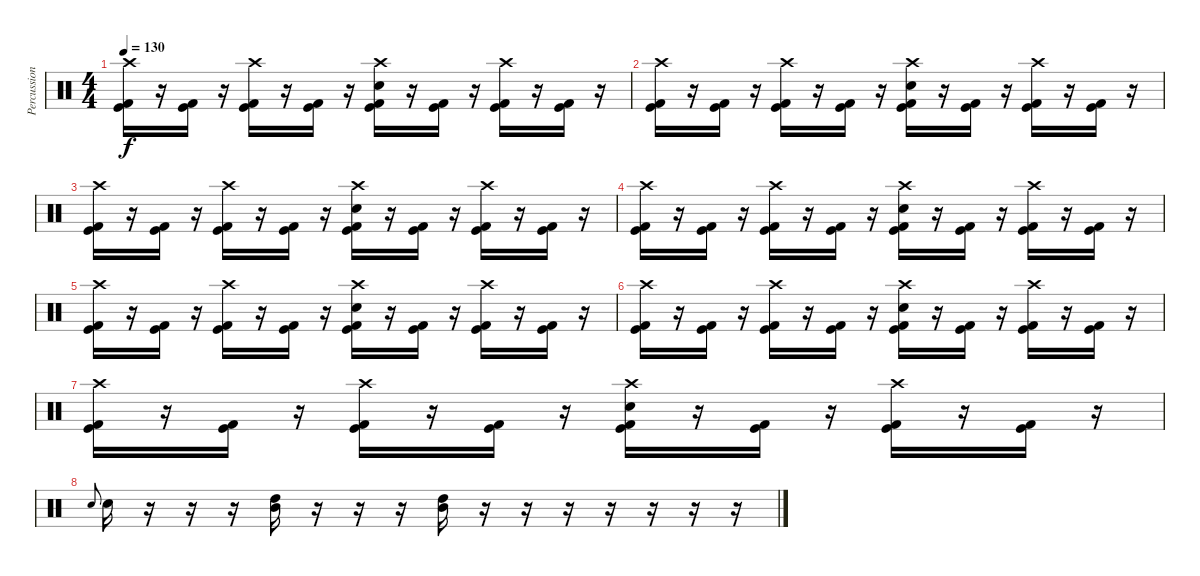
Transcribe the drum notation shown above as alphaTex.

\track ("Percussion" "Percussion") {instrument percussion}
\staff {score}
\articulation defaults
\ts (4 4)
\tempo 130
\clef neutral
\ks c
("Crash high (hit)" "Kick (hit)" "Kick (hit) 2").16{dy f} r.16 ("Kick (hit)" "Kick (hit) 2").16 r.16 ("Crash high (hit)" "Kick (hit)" "Kick (hit) 2").16 r.16 ("Kick (hit)" "Kick (hit) 2").16 r.16 ("Crash high (hit)" "Electric Snare (hit)" "Kick (hit)" "Kick (hit) 2").16 r.16 ("Kick (hit)" "Kick (hit) 2").16 r.16 ("Crash high (hit)" "Kick (hit)" "Kick (hit) 2").16 r.16 ("Kick (hit)" "Kick (hit) 2").16 r.16 |
("Crash high (hit)" "Kick (hit)" "Kick (hit) 2").16 r.16 ("Kick (hit)" "Kick (hit) 2").16 r.16 ("Crash high (hit)" "Kick (hit)" "Kick (hit) 2").16 r.16 ("Kick (hit)" "Kick (hit) 2").16 r.16 ("Crash high (hit)" "Electric Snare (hit)" "Kick (hit)" "Kick (hit) 2").16 r.16 ("Kick (hit)" "Kick (hit) 2").16 r.16 ("Crash high (hit)" "Kick (hit)" "Kick (hit) 2").16 r.16 ("Kick (hit)" "Kick (hit) 2").16 r.16 |
("Crash high (hit)" "Kick (hit)" "Kick (hit) 2").16 r.16 ("Kick (hit)" "Kick (hit) 2").16 r.16 ("Crash high (hit)" "Kick (hit)" "Kick (hit) 2").16 r.16 ("Kick (hit)" "Kick (hit) 2").16 r.16 ("Crash high (hit)" "Electric Snare (hit)" "Kick (hit)" "Kick (hit) 2").16 r.16 ("Kick (hit)" "Kick (hit) 2").16 r.16 ("Crash high (hit)" "Kick (hit)" "Kick (hit) 2").16 r.16 ("Kick (hit)" "Kick (hit) 2").16 r.16 |
("Crash high (hit)" "Kick (hit)" "Kick (hit) 2").16 r.16 ("Kick (hit)" "Kick (hit) 2").16 r.16 ("Crash high (hit)" "Kick (hit)" "Kick (hit) 2").16 r.16 ("Kick (hit)" "Kick (hit) 2").16 r.16 ("Crash high (hit)" "Electric Snare (hit)" "Kick (hit)" "Kick (hit) 2").16 r.16 ("Kick (hit)" "Kick (hit) 2").16 r.16 ("Crash high (hit)" "Kick (hit)" "Kick (hit) 2").16 r.16 ("Kick (hit)" "Kick (hit) 2").16 r.16 |
("Crash high (hit)" "Kick (hit)" "Kick (hit) 2").16 r.16 ("Kick (hit)" "Kick (hit) 2").16 r.16 ("Crash high (hit)" "Kick (hit)" "Kick (hit) 2").16 r.16 ("Kick (hit)" "Kick (hit) 2").16 r.16 ("Crash high (hit)" "Electric Snare (hit)" "Kick (hit)" "Kick (hit) 2").16 r.16 ("Kick (hit)" "Kick (hit) 2").16 r.16 ("Crash high (hit)" "Kick (hit)" "Kick (hit) 2").16 r.16 ("Kick (hit)" "Kick (hit) 2").16 r.16 |
("Crash high (hit)" "Kick (hit)" "Kick (hit) 2").16 r.16 ("Kick (hit)" "Kick (hit) 2").16 r.16 ("Crash high (hit)" "Kick (hit)" "Kick (hit) 2").16 r.16 ("Kick (hit)" "Kick (hit) 2").16 r.16 ("Crash high (hit)" "Electric Snare (hit)" "Kick (hit)" "Kick (hit) 2").16 r.16 ("Kick (hit)" "Kick (hit) 2").16 r.16 ("Crash high (hit)" "Kick (hit)" "Kick (hit) 2").16 r.16 ("Kick (hit)" "Kick (hit) 2").16 r.16 |
("Crash high (hit)" "Kick (hit)" "Kick (hit) 2").16 r.16 ("Kick (hit)" "Kick (hit) 2").16 r.16 ("Crash high (hit)" "Kick (hit)" "Kick (hit) 2").16 r.16 ("Kick (hit)" "Kick (hit) 2").16 r.16 ("Crash high (hit)" "Electric Snare (hit)" "Kick (hit)" "Kick (hit) 2").16 r.16 ("Kick (hit)" "Kick (hit) 2").16 r.16 ("Crash high (hit)" "Kick (hit)" "Kick (hit) 2").16 r.16 ("Kick (hit)" "Kick (hit) 2").16 r.16 |
"Electric Snare (hit)".8{gr onbeat} "Electric Snare (hit)".16 r.16 r.16 r.16 ("High Tom (hit)" "Mid Tom (hit)").16 r.16 r.16 r.16 ("High Tom (hit)" "Mid Tom (hit)").16 r.16 r.16 r.16 r.16 r.16 r.16 r.16
